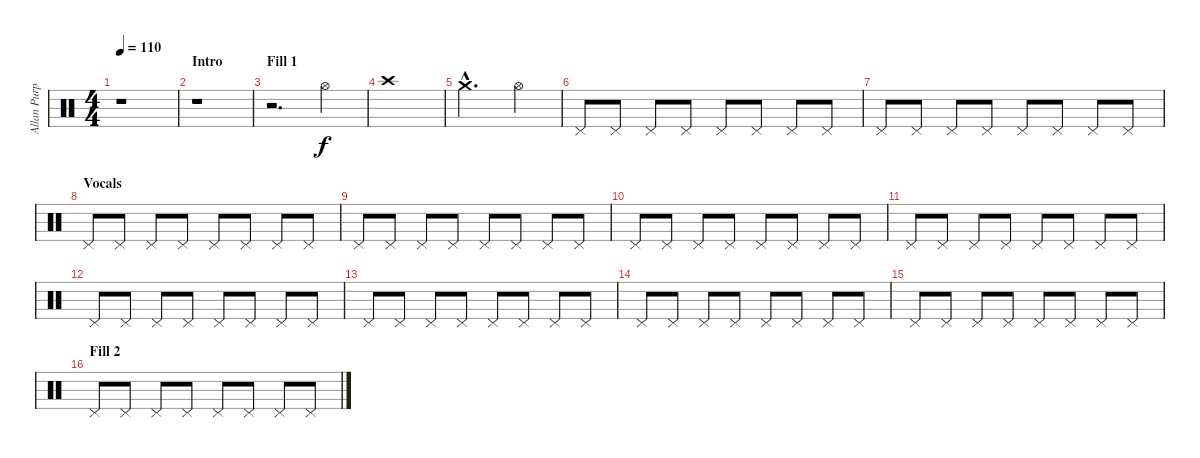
\track ("Allan Purple" "Allan Purp") {instrument percussion}
\staff {score}
\articulation defaults
\ts (4 4)
\tempo 110
\clef neutral
\ks c
r.1{dy f} |
\section ("" "Intro")
r.1 |
\section ("" "Fill 1")
r.2{d} "Hi-Hat (open)".4 |
"Crash high (hit)".1 |
"Crash medium (hit)"{hac}.2{d} "Hi-Hat (open)".4 |
"Pedal Hi-Hat (hit)".8 "Pedal Hi-Hat (hit)".8 "Pedal Hi-Hat (hit)".8 "Pedal Hi-Hat (hit)".8 "Pedal Hi-Hat (hit)".8 "Pedal Hi-Hat (hit)".8 "Pedal Hi-Hat (hit)".8 "Pedal Hi-Hat (hit)".8 |
"Pedal Hi-Hat (hit)".8 "Pedal Hi-Hat (hit)".8 "Pedal Hi-Hat (hit)".8 "Pedal Hi-Hat (hit)".8 "Pedal Hi-Hat (hit)".8 "Pedal Hi-Hat (hit)".8 "Pedal Hi-Hat (hit)".8 "Pedal Hi-Hat (hit)".8 |
\section ("" "Vocals")
"Pedal Hi-Hat (hit)".8 "Pedal Hi-Hat (hit)".8 "Pedal Hi-Hat (hit)".8 "Pedal Hi-Hat (hit)".8 "Pedal Hi-Hat (hit)".8 "Pedal Hi-Hat (hit)".8 "Pedal Hi-Hat (hit)".8 "Pedal Hi-Hat (hit)".8 |
"Pedal Hi-Hat (hit)".8 "Pedal Hi-Hat (hit)".8 "Pedal Hi-Hat (hit)".8 "Pedal Hi-Hat (hit)".8 "Pedal Hi-Hat (hit)".8 "Pedal Hi-Hat (hit)".8 "Pedal Hi-Hat (hit)".8 "Pedal Hi-Hat (hit)".8 |
"Pedal Hi-Hat (hit)".8 "Pedal Hi-Hat (hit)".8 "Pedal Hi-Hat (hit)".8 "Pedal Hi-Hat (hit)".8 "Pedal Hi-Hat (hit)".8 "Pedal Hi-Hat (hit)".8 "Pedal Hi-Hat (hit)".8 "Pedal Hi-Hat (hit)".8 |
"Pedal Hi-Hat (hit)".8 "Pedal Hi-Hat (hit)".8 "Pedal Hi-Hat (hit)".8 "Pedal Hi-Hat (hit)".8 "Pedal Hi-Hat (hit)".8 "Pedal Hi-Hat (hit)".8 "Pedal Hi-Hat (hit)".8 "Pedal Hi-Hat (hit)".8 |
"Pedal Hi-Hat (hit)".8 "Pedal Hi-Hat (hit)".8 "Pedal Hi-Hat (hit)".8 "Pedal Hi-Hat (hit)".8 "Pedal Hi-Hat (hit)".8 "Pedal Hi-Hat (hit)".8 "Pedal Hi-Hat (hit)".8 "Pedal Hi-Hat (hit)".8 |
"Pedal Hi-Hat (hit)".8 "Pedal Hi-Hat (hit)".8 "Pedal Hi-Hat (hit)".8 "Pedal Hi-Hat (hit)".8 "Pedal Hi-Hat (hit)".8 "Pedal Hi-Hat (hit)".8 "Pedal Hi-Hat (hit)".8 "Pedal Hi-Hat (hit)".8 |
"Pedal Hi-Hat (hit)".8 "Pedal Hi-Hat (hit)".8 "Pedal Hi-Hat (hit)".8 "Pedal Hi-Hat (hit)".8 "Pedal Hi-Hat (hit)".8 "Pedal Hi-Hat (hit)".8 "Pedal Hi-Hat (hit)".8 "Pedal Hi-Hat (hit)".8 |
"Pedal Hi-Hat (hit)".8 "Pedal Hi-Hat (hit)".8 "Pedal Hi-Hat (hit)".8 "Pedal Hi-Hat (hit)".8 "Pedal Hi-Hat (hit)".8 "Pedal Hi-Hat (hit)".8 "Pedal Hi-Hat (hit)".8 "Pedal Hi-Hat (hit)".8 |
\section ("" "Fill 2")
"Pedal Hi-Hat (hit)".8 "Pedal Hi-Hat (hit)".8 "Pedal Hi-Hat (hit)".8 "Pedal Hi-Hat (hit)".8 "Pedal Hi-Hat (hit)".8 "Pedal Hi-Hat (hit)".8 "Pedal Hi-Hat (hit)".8 "Pedal Hi-Hat (hit)".8
